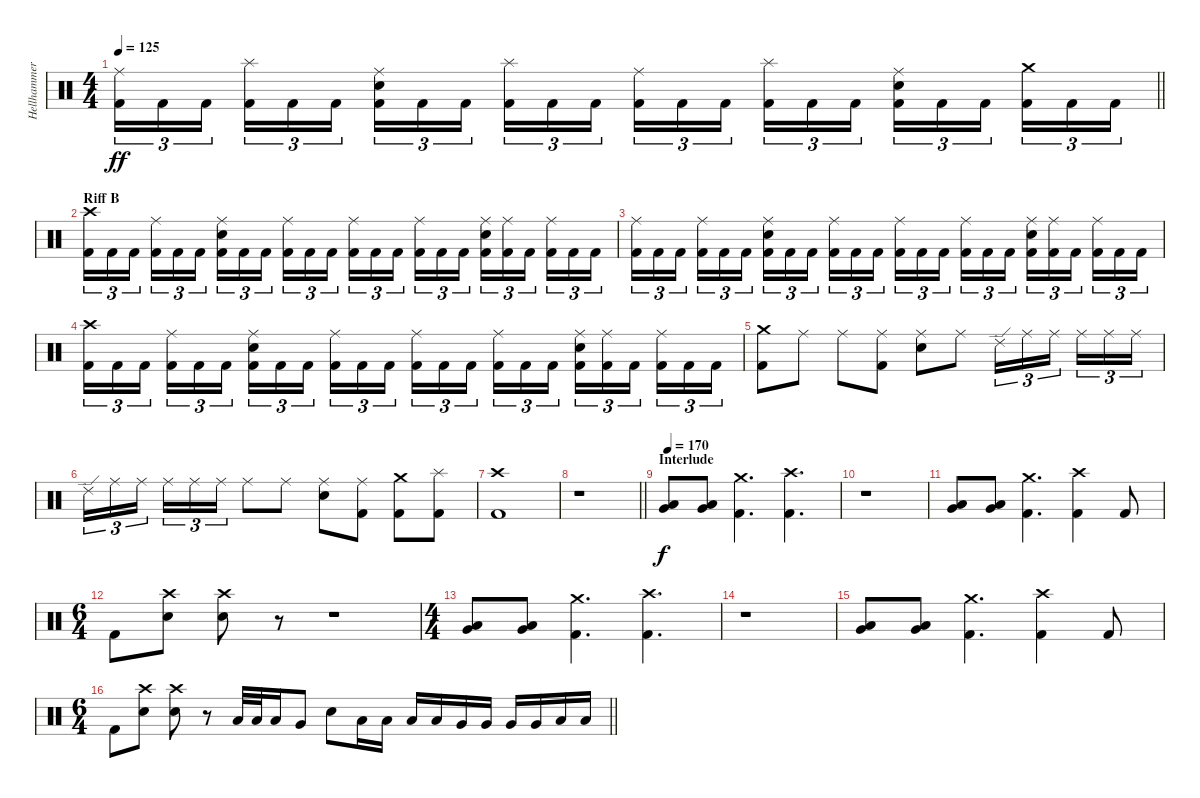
\track ("Hellhammer" "Hellhammer") {instrument percussion}
\staff {score}
\articulation defaults
\ts (4 4)
\tempo 125
\clef neutral
\barLineRight lightlight
\ks c
("Ride (middle)" "Kick (hit) 2").16{tu (3 2) dy ff} "Kick (hit) 2".16{tu (3 2)} "Kick (hit) 2".16{tu (3 2) beam splitsecondary} ("Splash (hit)" "Kick (hit) 2").16{tu (3 2)} "Kick (hit) 2".16{tu (3 2)} "Kick (hit) 2".16{tu (3 2)} ("Ride (middle)" "Snare (hit) 2" "Kick (hit) 2").16{tu (3 2)} "Kick (hit) 2".16{tu (3 2)} "Kick (hit) 2".16{tu (3 2) beam splitsecondary} ("Splash (hit)" "Kick (hit) 2").16{tu (3 2)} "Kick (hit) 2".16{tu (3 2)} "Kick (hit) 2".16{tu (3 2)} ("Ride (middle)" "Kick (hit) 2").16{tu (3 2)} "Kick (hit) 2".16{tu (3 2)} "Kick (hit) 2".16{tu (3 2) beam splitsecondary} ("Splash (hit)" "Kick (hit) 2").16{tu (3 2)} "Kick (hit) 2".16{tu (3 2)} "Kick (hit) 2".16{tu (3 2)} ("Ride (middle)" "Snare (hit) 2" "Kick (hit) 2").16{tu (3 2)} "Kick (hit) 2".16{tu (3 2)} "Kick (hit) 2".16{tu (3 2) beam splitsecondary} ("Crash medium (hit)" "Kick (hit) 2").16{tu (3 2)} "Kick (hit) 2".16{tu (3 2)} "Kick (hit) 2".16{tu (3 2)} |
\section ("" "Riff B")
("Crash high (hit)" "Kick (hit) 2").16{tu (3 2)} "Kick (hit) 2".16{tu (3 2)} "Kick (hit) 2".16{tu (3 2) beam splitsecondary} ("Ride (middle)" "Kick (hit) 2").16{tu (3 2)} "Kick (hit) 2".16{tu (3 2)} "Kick (hit) 2".16{tu (3 2)} ("Ride (middle)" "Snare (hit) 2" "Kick (hit) 2").16{tu (3 2)} "Kick (hit) 2".16{tu (3 2)} "Kick (hit) 2".16{tu (3 2) beam splitsecondary} ("Ride (middle)" "Kick (hit) 2").16{tu (3 2)} "Kick (hit) 2".16{tu (3 2)} "Kick (hit) 2".16{tu (3 2)} ("Ride (middle)" "Kick (hit) 2").16{tu (3 2)} "Kick (hit) 2".16{tu (3 2)} "Kick (hit) 2".16{tu (3 2) beam splitsecondary} ("Ride (middle)" "Kick (hit) 2").16{tu (3 2)} "Kick (hit) 2".16{tu (3 2)} "Kick (hit) 2".16{tu (3 2)} ("Ride (middle)" "Snare (hit) 2" "Kick (hit) 2").16{tu (3 2)} ("Ride (middle)" "Kick (hit) 2").16{tu (3 2)} "Kick (hit) 2".16{tu (3 2) beam splitsecondary} ("Ride (middle)" "Kick (hit) 2").16{tu (3 2)} "Kick (hit) 2".16{tu (3 2)} "Kick (hit) 2".16{tu (3 2)} |
("Ride (middle)" "Kick (hit) 2").16{tu (3 2)} "Kick (hit) 2".16{tu (3 2)} "Kick (hit) 2".16{tu (3 2) beam splitsecondary} ("Ride (middle)" "Kick (hit) 2").16{tu (3 2)} "Kick (hit) 2".16{tu (3 2)} "Kick (hit) 2".16{tu (3 2)} ("Ride (middle)" "Snare (hit) 2" "Kick (hit) 2").16{tu (3 2)} "Kick (hit) 2".16{tu (3 2)} "Kick (hit) 2".16{tu (3 2) beam splitsecondary} ("Ride (middle)" "Kick (hit) 2").16{tu (3 2)} "Kick (hit) 2".16{tu (3 2)} "Kick (hit) 2".16{tu (3 2)} ("Ride (middle)" "Kick (hit) 2").16{tu (3 2)} "Kick (hit) 2".16{tu (3 2)} "Kick (hit) 2".16{tu (3 2) beam splitsecondary} ("Ride (middle)" "Kick (hit) 2").16{tu (3 2)} "Kick (hit) 2".16{tu (3 2)} "Kick (hit) 2".16{tu (3 2)} ("Ride (middle)" "Snare (hit) 2" "Kick (hit) 2").16{tu (3 2)} ("Ride (middle)" "Kick (hit) 2").16{tu (3 2)} "Kick (hit) 2".16{tu (3 2) beam splitsecondary} ("Ride (middle)" "Kick (hit) 2").16{tu (3 2)} "Kick (hit) 2".16{tu (3 2)} "Kick (hit) 2".16{tu (3 2)} |
("Crash high (hit)" "Kick (hit) 2").16{tu (3 2)} "Kick (hit) 2".16{tu (3 2)} "Kick (hit) 2".16{tu (3 2) beam splitsecondary} ("Ride (middle)" "Kick (hit) 2").16{tu (3 2)} "Kick (hit) 2".16{tu (3 2)} "Kick (hit) 2".16{tu (3 2)} ("Ride (middle)" "Snare (hit) 2" "Kick (hit) 2").16{tu (3 2)} "Kick (hit) 2".16{tu (3 2)} "Kick (hit) 2".16{tu (3 2) beam splitsecondary} ("Ride (middle)" "Kick (hit) 2").16{tu (3 2)} "Kick (hit) 2".16{tu (3 2)} "Kick (hit) 2".16{tu (3 2)} ("Ride (middle)" "Kick (hit) 2").16{tu (3 2)} "Kick (hit) 2".16{tu (3 2)} "Kick (hit) 2".16{tu (3 2) beam splitsecondary} ("Ride (middle)" "Kick (hit) 2").16{tu (3 2)} "Kick (hit) 2".16{tu (3 2)} "Kick (hit) 2".16{tu (3 2)} ("Ride (middle)" "Snare (hit) 2" "Kick (hit) 2").16{tu (3 2)} ("Ride (middle)" "Kick (hit) 2").16{tu (3 2)} "Kick (hit) 2".16{tu (3 2) beam splitsecondary} ("Ride (middle)" "Kick (hit) 2").16{tu (3 2)} "Kick (hit) 2".16{tu (3 2)} "Kick (hit) 2".16{tu (3 2)} |
("Crash medium (hit)" "Kick (hit) 2").8 "Ride (middle)".8 "Ride (middle)".8 ("Ride (middle)" "Kick (hit) 2").8 ("Ride (middle)" "Snare (hit) 2").8 "Ride (middle)".8 "Ride (edge) 2".16{tu (3 2)} "Ride (middle)".16{tu (3 2)} "Ride (middle)".16{tu (3 2) beam splitsecondary} "Ride (middle)".16{tu (3 2)} "Ride (middle)".16{tu (3 2)} "Ride (middle)".16{tu (3 2)} |
"Ride (edge) 2".16{tu (3 2)} "Ride (middle)".16{tu (3 2)} "Ride (middle)".16{tu (3 2) beam splitsecondary} "Ride (middle)".16{tu (3 2)} "Ride (middle)".16{tu (3 2)} "Ride (middle)".16{tu (3 2)} "Ride (middle)".8 "Ride (middle)".8 ("Ride (middle)" "Snare (hit) 2").8 ("Ride (middle)" "Kick (hit) 2").8 ("Crash medium (hit)" "Kick (hit) 2").8 ("Splash (hit)" "Kick (hit) 2").8 |
("Crash high (hit)" "Kick (hit) 2").1 |
\barLineRight lightlight
r.1 |
\section ("" "Interlude")
\tempo 170
("Very Low Tom (hit)" "Low Floor Tom (hit)").8{dy f} ("Very Low Tom (hit)" "Low Floor Tom (hit)").8 ("Crash medium (hit)" "Kick (hit) 2").4{d} ("Crash high (hit)" "Kick (hit) 2").4{d} |
r.1 |
("Very Low Tom (hit)" "Low Floor Tom (hit)").8 ("Very Low Tom (hit)" "Low Floor Tom (hit)").8 ("Crash medium (hit)" "Kick (hit) 2").4{d} ("Crash high (hit)" "Kick (hit) 2").4 "Kick (hit) 2".8 |
\ts (6 4)
"Kick (hit) 2".8 ("Crash high (hit)" "Snare (hit) 2").8 ("Crash high (hit)" "Snare (hit) 2").8 r.8 r.1 |
\ts (4 4)
("Very Low Tom (hit)" "Low Floor Tom (hit)").8 ("Very Low Tom (hit)" "Low Floor Tom (hit)").8 ("Crash medium (hit)" "Kick (hit) 2").4{d} ("Crash high (hit)" "Kick (hit) 2").4{d} |
r.1 |
("Very Low Tom (hit)" "Low Floor Tom (hit)").8 ("Very Low Tom (hit)" "Low Floor Tom (hit)").8 ("Crash medium (hit)" "Kick (hit) 2").4{d} ("Crash high (hit)" "Kick (hit) 2").4 "Kick (hit) 2".8 |
\ts (6 4)
\barLineRight lightlight "Kick (hit) 2".8
("Crash high (hit)" "Snare (hit) 2").8 ("Crash high (hit)" "Snare (hit) 2").8 r.8 "Low Tom (hit)".32 "Low Tom (hit)".32 "Low Tom (hit)".16 "Very Low Tom (hit)".8 "Snare (hit) 2".8 "Low Tom (hit)".16 "Low Tom (hit)".16 "Low Tom (hit)".16 "Low Tom (hit)".16 "Very Low Tom (hit)".16 "Very Low Tom (hit)".16 "Very Low Tom (hit)".16 "Very Low Tom (hit)".16 "Low Floor Tom (hit)".16 "Low Floor Tom (hit)".16
